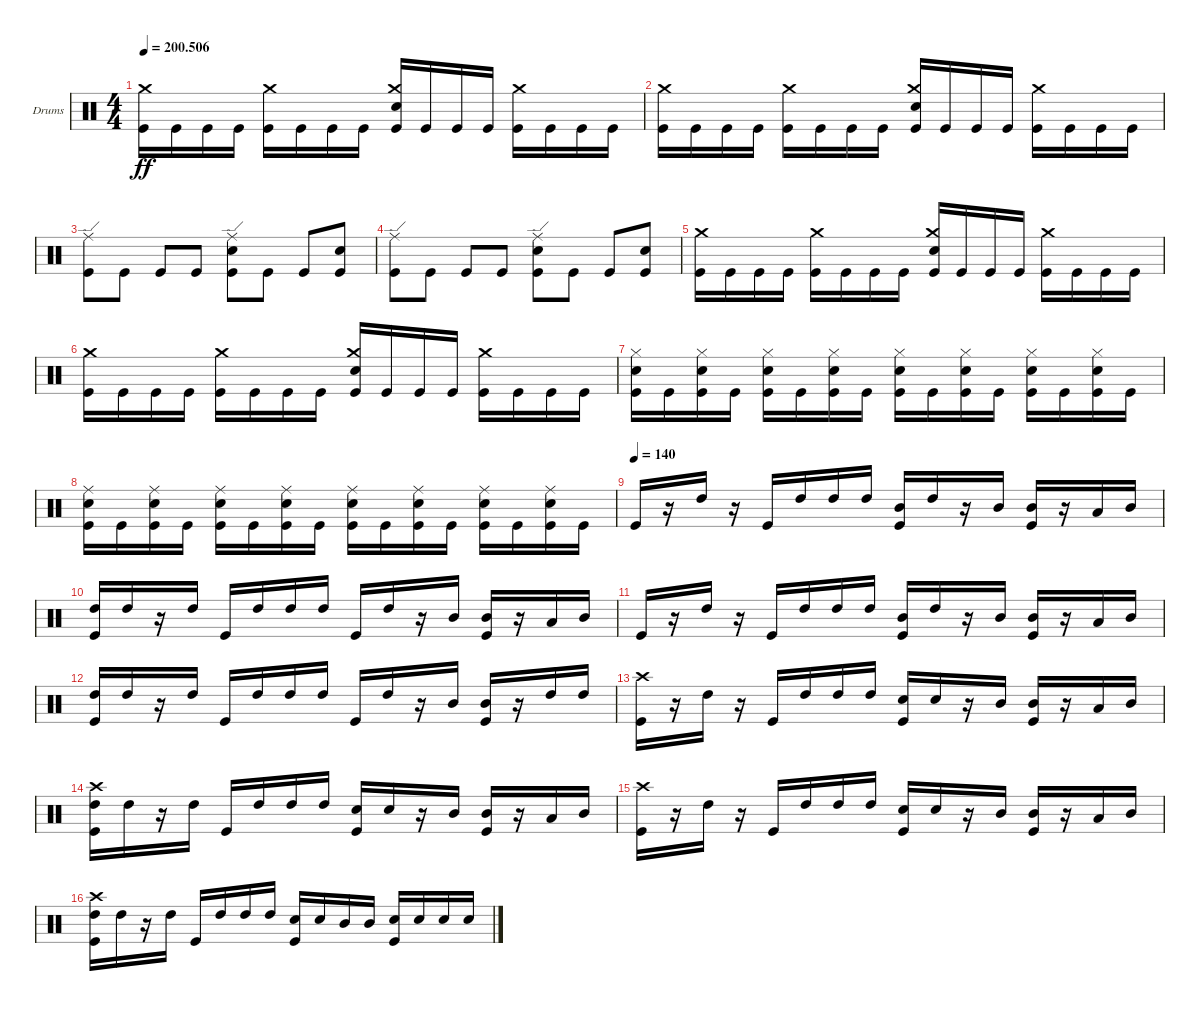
\bracketExtendMode groupsimilarinstruments
\firstSystemTrackNameOrientation horizontal
\otherSystemsTrackNameOrientation horizontal
\track ("Drumkit" "Drums") {instrument percussion}
\staff {score}
\articulation defaults
\ts (4 4)
\tempo
200.506
\accidentals auto
\clef neutral
\ottava regular
\simile none
\ks c
("Kick (hit)" "Crash medium (hit)").16{dy ff} "Kick (hit)".16 "Kick (hit)".16 "Kick (hit)".16 ("Kick (hit)" "Crash medium (hit)").16 "Kick (hit)".16 "Kick (hit)".16 "Kick (hit)".16 ("Kick (hit)" "Crash medium (hit)" "Snare (hit) 2").16 "Kick (hit)".16 "Kick (hit)".16 "Kick (hit)".16 ("Kick (hit)" "Crash medium (hit)").16 "Kick (hit)".16 "Kick (hit)".16 "Kick (hit)".16 |
("Kick (hit)" "Crash medium (hit)").16 "Kick (hit)".16 "Kick (hit)".16 "Kick (hit)".16 ("Kick (hit)" "Crash medium (hit)").16 "Kick (hit)".16 "Kick (hit)".16 "Kick (hit)".16 ("Kick (hit)" "Crash medium (hit)" "Snare (hit) 2").16 "Kick (hit)".16 "Kick (hit)".16 "Kick (hit)".16 ("Kick (hit)" "Crash medium (hit)").16 "Kick (hit)".16 "Kick (hit)".16 "Kick (hit)".16 |
("Kick (hit)" "Ride (edge)").8 "Kick (hit)".8 "Kick (hit)".8 "Kick (hit)".8 ("Kick (hit)" "Snare (hit) 2" "Ride (edge)").8 "Kick (hit)".8 "Kick (hit)".8 ("Kick (hit)" "Snare (hit) 2").8 |
("Kick (hit)" "Ride (edge)").8 "Kick (hit)".8 "Kick (hit)".8 "Kick (hit)".8 ("Kick (hit)" "Snare (hit) 2" "Ride (edge)").8 "Kick (hit)".8 "Kick (hit)".8 ("Kick (hit)" "Snare (hit) 2").8 |
("Kick (hit)" "Crash medium (hit)").16 "Kick (hit)".16 "Kick (hit)".16 "Kick (hit)".16 ("Kick (hit)" "Crash medium (hit)").16 "Kick (hit)".16 "Kick (hit)".16 "Kick (hit)".16 ("Kick (hit)" "Snare (hit) 2" "Crash medium (hit)").16 "Kick (hit)".16 "Kick (hit)".16 "Kick (hit)".16 ("Kick (hit)" "Crash medium (hit)").16 "Kick (hit)".16 "Kick (hit)".16 "Kick (hit)".16 |
("Kick (hit)" "Crash medium (hit)").16 "Kick (hit)".16 "Kick (hit)".16 "Kick (hit)".16 ("Kick (hit)" "Crash medium (hit)").16 "Kick (hit)".16 "Kick (hit)".16 "Kick (hit)".16 ("Kick (hit)" "Crash medium (hit)" "Snare (hit) 2").16 "Kick (hit)".16 "Kick (hit)".16 "Kick (hit)".16 ("Kick (hit)" "Crash medium (hit)").16 "Kick (hit)".16 "Kick (hit)".16 "Kick (hit)".16 |
("Kick (hit)" "Snare (hit) 2" "Hi-Hat (closed)").16 "Kick (hit)".16 ("Kick (hit)" "Snare (hit) 2" "Hi-Hat (closed)").16 "Kick (hit)".16 ("Kick (hit)" "Snare (hit) 2" "Hi-Hat (closed)").16 "Kick (hit)".16 ("Kick (hit)" "Snare (hit) 2" "Hi-Hat (closed)").16 "Kick (hit)".16 ("Kick (hit)" "Snare (hit) 2" "Hi-Hat (closed)").16 "Kick (hit)".16 ("Kick (hit)" "Snare (hit) 2" "Hi-Hat (closed)").16 "Kick (hit)".16 ("Kick (hit)" "Snare (hit) 2" "Hi-Hat (closed)").16 "Kick (hit)".16 ("Kick (hit)" "Snare (hit) 2" "Hi-Hat (closed)").16 "Kick (hit)".16 |
("Kick (hit)" "Snare (hit) 2" "Ride (middle)").16 "Kick (hit)".16 ("Kick (hit)" "Snare (hit) 2" "Ride (middle)").16 "Kick (hit)".16 ("Kick (hit)" "Snare (hit) 2" "Ride (middle)").16 "Kick (hit)".16 ("Kick (hit)" "Snare (hit) 2" "Ride (middle)").16 "Kick (hit)".16 ("Kick (hit)" "Snare (hit) 2" "Ride (middle)").16 "Kick (hit)".16 ("Kick (hit)" "Snare (hit) 2" "Ride (middle)").16 "Kick (hit)".16 ("Kick (hit)" "Snare (hit) 2" "Ride (middle)").16 "Kick (hit)".16 ("Kick (hit)" "Snare (hit) 2" "Ride (middle)").16 "Kick (hit)".16 |
\tempo (140)
"Kick (hit)".16 r.16 "High Tom (hit)".16 r.16 "Kick (hit)".16 "High Tom (hit)".16 "High Tom (hit)".16 "High Tom (hit)".16 ("Kick (hit)" "Mid Tom (hit)").16 "High Tom (hit)".16 r.16 "Mid Tom (hit)".16 ("Kick (hit)" "Mid Tom (hit)").16 r.16 "Low Tom (hit)".16 "Mid Tom (hit)".16 |
("Kick (hit)" "High Tom (hit)").16 "High Tom (hit)".16 r.16 "High Tom (hit)".16 "Kick (hit)".16 "High Tom (hit)".16 "High Tom (hit)".16 "High Tom (hit)".16 "Kick (hit)".16 "High Tom (hit)".16 r.16 "Mid Tom (hit)".16 ("Kick (hit)" "Mid Tom (hit)").16 r.16 "Low Tom (hit)".16 "Mid Tom (hit)".16 |
"Kick (hit)".16 r.16 "High Tom (hit)".16 r.16 "Kick (hit)".16 "High Tom (hit)".16 "High Tom (hit)".16 "High Tom (hit)".16 ("Kick (hit)" "Mid Tom (hit)").16 "High Tom (hit)".16 r.16 "Mid Tom (hit)".16 ("Kick (hit)" "Mid Tom (hit)").16 r.16 "Low Tom (hit)".16 "Mid Tom (hit)".16 |
("Kick (hit)" "High Tom (hit)").16 "High Tom (hit)".16 r.16 "High Tom (hit)".16 "Kick (hit)".16 "High Tom (hit)".16 "High Tom (hit)".16 "High Tom (hit)".16 "Kick (hit)".16 "High Tom (hit)".16 r.16 "Mid Tom (hit)".16 ("Kick (hit)" "Mid Tom (hit)").16 r.16 "High Tom (hit)".16 "High Tom (hit)".16 |
("Kick (hit)" "Crash high (hit)").16 r.16 "High Tom (hit)".16 r.16 "Kick (hit)".16 "High Tom (hit)".16 "High Tom (hit)".16 "High Tom (hit)".16 ("Kick (hit)" "Snare (hit) 2").16 "Snare (hit) 2".16 r.16 "Mid Tom (hit)".16 ("Kick (hit)" "Mid Tom (hit)").16 r.16 "Low Tom (hit)".16 "Mid Tom (hit)".16 |
("Kick (hit)" "High Tom (hit)" "Crash high (hit)").16 "High Tom (hit)".16 r.16 "High Tom (hit)".16 "Kick (hit)".16 "High Tom (hit)".16 "High Tom (hit)".16 "High Tom (hit)".16 ("Kick (hit)" "Snare (hit) 2").16 "Snare (hit) 2".16 r.16 "Mid Tom (hit)".16 ("Kick (hit)" "Mid Tom (hit)").16 r.16 "Low Tom (hit)".16 "Mid Tom (hit)".16 |
("Kick (hit)" "Crash high (hit)").16 r.16 "High Tom (hit)".16 r.16 "Kick (hit)".16 "High Tom (hit)".16 "High Tom (hit)".16 "High Tom (hit)".16 ("Kick (hit)" "Snare (hit) 2").16 "Snare (hit) 2".16 r.16 "Mid Tom (hit)".16 ("Kick (hit)" "Mid Tom (hit)").16 r.16 "Low Tom (hit)".16 "Mid Tom (hit)".16 |
("Kick (hit)" "High Tom (hit)" "Crash high (hit)").16 "High Tom (hit)".16 r.16 "High Tom (hit)".16 "Kick (hit)".16 "High Tom (hit)".16 "High Tom (hit)".16 "High Tom (hit)".16 ("Kick (hit)" "Snare (hit) 2").16 "Snare (hit) 2".16 "Mid Tom (hit)".16 "Mid Tom (hit)".16 ("Kick (hit)" "Snare (hit) 2").16 "Snare (hit) 2".16 "Snare (hit) 2".16 "Snare (hit) 2".16
